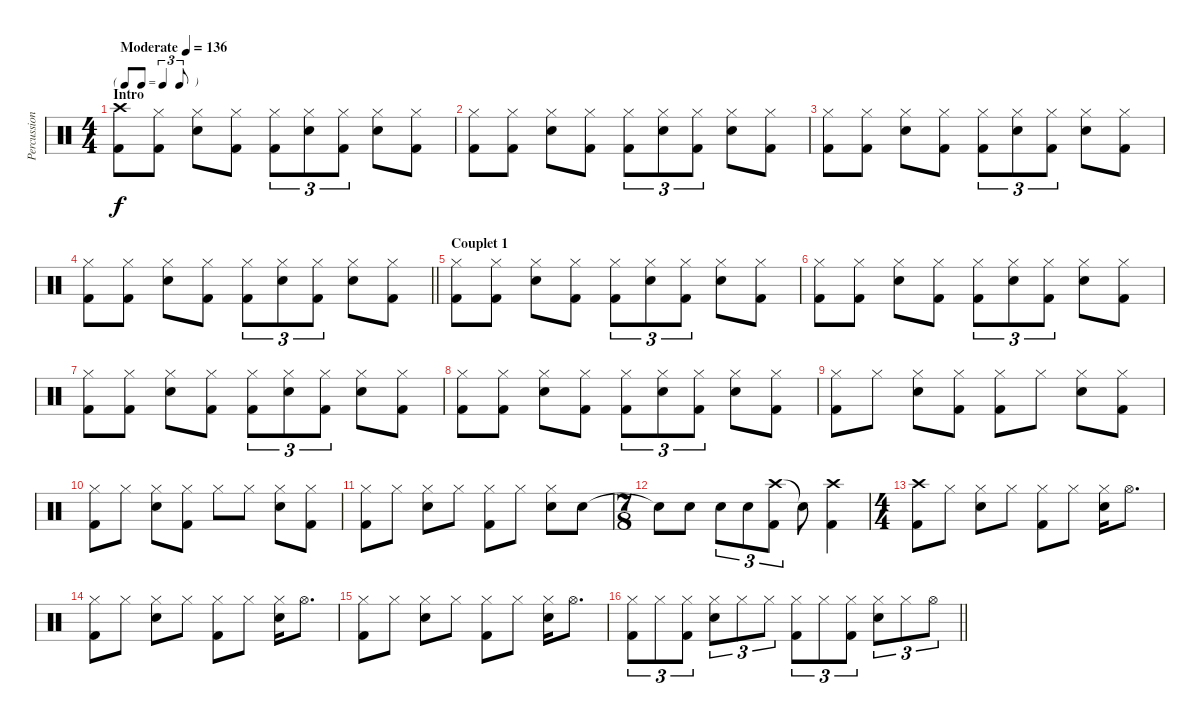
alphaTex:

\track ("Percussions" "Percussion") {instrument percussion}
\staff {score}
\articulation defaults
\ts (4 4)
\tf triplet8th
\section ("" "Intro")
\tempo (136 "Moderate")
\clef neutral
\ks c
("Crash high (hit)" "Kick (hit) 2").8{dy f} ("Hi-Hat (closed)" "Kick (hit) 2").8 ("Hi-Hat (closed)" "Snare (hit) 2").8 ("Hi-Hat (closed)" "Kick (hit) 2").8 ("Hi-Hat (closed)" "Kick (hit) 2").8{tu (3 2)} ("Hi-Hat (closed)" "Snare (hit) 2").8{tu (3 2)} ("Hi-Hat (closed)" "Kick (hit) 2").8{tu (3 2)} ("Hi-Hat (closed)" "Snare (hit) 2").8 ("Hi-Hat (closed)" "Kick (hit) 2").8 |
("Hi-Hat (closed)" "Kick (hit) 2").8 ("Hi-Hat (closed)" "Kick (hit) 2").8 ("Hi-Hat (closed)" "Snare (hit) 2").8 ("Hi-Hat (closed)" "Kick (hit) 2").8 ("Hi-Hat (closed)" "Kick (hit) 2").8{tu (3 2)} ("Hi-Hat (closed)" "Snare (hit) 2").8{tu (3 2)} ("Hi-Hat (closed)" "Kick (hit) 2").8{tu (3 2)} ("Hi-Hat (closed)" "Snare (hit) 2").8 ("Hi-Hat (closed)" "Kick (hit) 2").8 |
("Hi-Hat (closed)" "Kick (hit) 2").8 ("Hi-Hat (closed)" "Kick (hit) 2").8 ("Hi-Hat (closed)" "Snare (hit) 2").8 ("Hi-Hat (closed)" "Kick (hit) 2").8 ("Hi-Hat (closed)" "Kick (hit) 2").8{tu (3 2)} ("Hi-Hat (closed)" "Snare (hit) 2").8{tu (3 2)} ("Hi-Hat (closed)" "Kick (hit) 2").8{tu (3 2)} ("Hi-Hat (closed)" "Snare (hit) 2").8 ("Hi-Hat (closed)" "Kick (hit) 2").8 |
\barLineRight lightlight
("Hi-Hat (closed)" "Kick (hit) 2").8 ("Hi-Hat (closed)" "Kick (hit) 2").8 ("Hi-Hat (closed)" "Snare (hit) 2").8 ("Hi-Hat (closed)" "Kick (hit) 2").8 ("Hi-Hat (closed)" "Kick (hit) 2").8{tu (3 2)} ("Hi-Hat (closed)" "Snare (hit) 2").8{tu (3 2)} ("Hi-Hat (closed)" "Kick (hit) 2").8{tu (3 2)} ("Hi-Hat (closed)" "Snare (hit) 2").8 ("Hi-Hat (closed)" "Kick (hit) 2").8 |
\section ("" "Couplet 1")
("Hi-Hat (closed)" "Kick (hit) 2").8 ("Hi-Hat (closed)" "Kick (hit) 2").8 ("Hi-Hat (closed)" "Snare (hit) 2").8 ("Hi-Hat (closed)" "Kick (hit) 2").8 ("Hi-Hat (closed)" "Kick (hit) 2").8{tu (3 2)} ("Hi-Hat (closed)" "Snare (hit) 2").8{tu (3 2)} ("Hi-Hat (closed)" "Kick (hit) 2").8{tu (3 2)} ("Hi-Hat (closed)" "Snare (hit) 2").8 ("Hi-Hat (closed)" "Kick (hit) 2").8 |
("Hi-Hat (closed)" "Kick (hit) 2").8 ("Hi-Hat (closed)" "Kick (hit) 2").8 ("Hi-Hat (closed)" "Snare (hit) 2").8 ("Hi-Hat (closed)" "Kick (hit) 2").8 ("Hi-Hat (closed)" "Kick (hit) 2").8{tu (3 2)} ("Hi-Hat (closed)" "Snare (hit) 2").8{tu (3 2)} ("Hi-Hat (closed)" "Kick (hit) 2").8{tu (3 2)} ("Hi-Hat (closed)" "Snare (hit) 2").8 ("Hi-Hat (closed)" "Kick (hit) 2").8 |
("Hi-Hat (closed)" "Kick (hit) 2").8 ("Hi-Hat (closed)" "Kick (hit) 2").8 ("Hi-Hat (closed)" "Snare (hit) 2").8 ("Hi-Hat (closed)" "Kick (hit) 2").8 ("Hi-Hat (closed)" "Kick (hit) 2").8{tu (3 2)} ("Hi-Hat (closed)" "Snare (hit) 2").8{tu (3 2)} ("Hi-Hat (closed)" "Kick (hit) 2").8{tu (3 2)} ("Hi-Hat (closed)" "Snare (hit) 2").8 ("Hi-Hat (closed)" "Kick (hit) 2").8 |
("Hi-Hat (closed)" "Kick (hit) 2").8 ("Hi-Hat (closed)" "Kick (hit) 2").8 ("Hi-Hat (closed)" "Snare (hit) 2").8 ("Hi-Hat (closed)" "Kick (hit) 2").8 ("Hi-Hat (closed)" "Kick (hit) 2").8{tu (3 2)} ("Hi-Hat (closed)" "Snare (hit) 2").8{tu (3 2)} ("Hi-Hat (closed)" "Kick (hit) 2").8{tu (3 2)} ("Hi-Hat (closed)" "Snare (hit) 2").8 ("Hi-Hat (closed)" "Kick (hit) 2").8 |
("Hi-Hat (closed)" "Kick (hit) 2").8 "Hi-Hat (closed)".8 ("Hi-Hat (closed)" "Snare (hit) 2").8 ("Hi-Hat (closed)" "Kick (hit) 2").8 ("Hi-Hat (closed)" "Kick (hit) 2").8 "Hi-Hat (closed)".8 ("Hi-Hat (closed)" "Snare (hit) 2").8 ("Hi-Hat (closed)" "Kick (hit) 2").8 |
("Hi-Hat (closed)" "Kick (hit) 2").8 "Hi-Hat (closed)".8 ("Hi-Hat (closed)" "Snare (hit) 2").8 ("Hi-Hat (closed)" "Kick (hit) 2").8 "Hi-Hat (closed)".8 "Hi-Hat (closed)".8 ("Hi-Hat (closed)" "Snare (hit) 2").8 ("Hi-Hat (closed)" "Kick (hit) 2").8 |
("Hi-Hat (closed)" "Kick (hit) 2").8 "Hi-Hat (closed)".8 ("Hi-Hat (closed)" "Snare (hit) 2").8 "Hi-Hat (closed)".8 ("Hi-Hat (closed)" "Kick (hit) 2").8 "Hi-Hat (closed)".8 ("Hi-Hat (closed)" "Snare (hit) 2").8 "Snare (hit) 2".8 |
\ts (7 8)
"Snare (hit) 2"{t}.8 "Snare (hit) 2".8 "Snare (hit) 2".8{tu (3 2)} "Snare (hit) 2".8{tu (3 2)} ("Crash high (hit)" "Kick (hit) 2").8{tu (3 2)} "Snare (hit)"{t}.8 ("Crash high (hit)" "Kick (hit) 2").4 |
\ts (4 4)
("Crash high (hit)" "Kick (hit) 2").8 "Hi-Hat (closed)".8 ("Hi-Hat (closed)" "Snare (hit) 2").8 "Hi-Hat (closed)".8 ("Hi-Hat (closed)" "Kick (hit) 2").8 "Hi-Hat (closed)".8 ("Hi-Hat (closed)" "Snare (hit) 2").16 "Hi-Hat (open)".8{d} |
("Hi-Hat (closed)" "Kick (hit) 2").8 "Hi-Hat (closed)".8 ("Hi-Hat (closed)" "Snare (hit) 2").8 "Hi-Hat (closed)".8 ("Hi-Hat (closed)" "Kick (hit) 2").8 "Hi-Hat (closed)".8 ("Hi-Hat (closed)" "Snare (hit) 2").16 "Hi-Hat (open)".8{d} |
("Hi-Hat (closed)" "Kick (hit) 2").8 "Hi-Hat (closed)".8 ("Hi-Hat (closed)" "Snare (hit) 2").8 "Hi-Hat (closed)".8 ("Hi-Hat (closed)" "Kick (hit) 2").8 "Hi-Hat (closed)".8 ("Hi-Hat (closed)" "Snare (hit) 2").16 "Hi-Hat (open)".8{d} |
\barLineRight lightlight
("Hi-Hat (closed)" "Kick (hit) 2").8{tu (3 2)} "Hi-Hat (closed)".8{tu (3 2)} ("Hi-Hat (closed)" "Kick (hit) 2").8{tu (3 2)} ("Hi-Hat (closed)" "Snare (hit) 2").8{tu (3 2)} "Hi-Hat (closed)".8{tu (3 2)} "Hi-Hat (closed)".8{tu (3 2)} ("Hi-Hat (closed)" "Kick (hit) 2").8{tu (3 2)} "Hi-Hat (closed)".8{tu (3 2)} ("Hi-Hat (closed)" "Kick (hit) 2").8{tu (3 2)} ("Hi-Hat (closed)" "Snare (hit) 2").8{tu (3 2)} "Hi-Hat (closed)".8{tu (3 2)} "Hi-Hat (open)".8{tu (3 2)}
